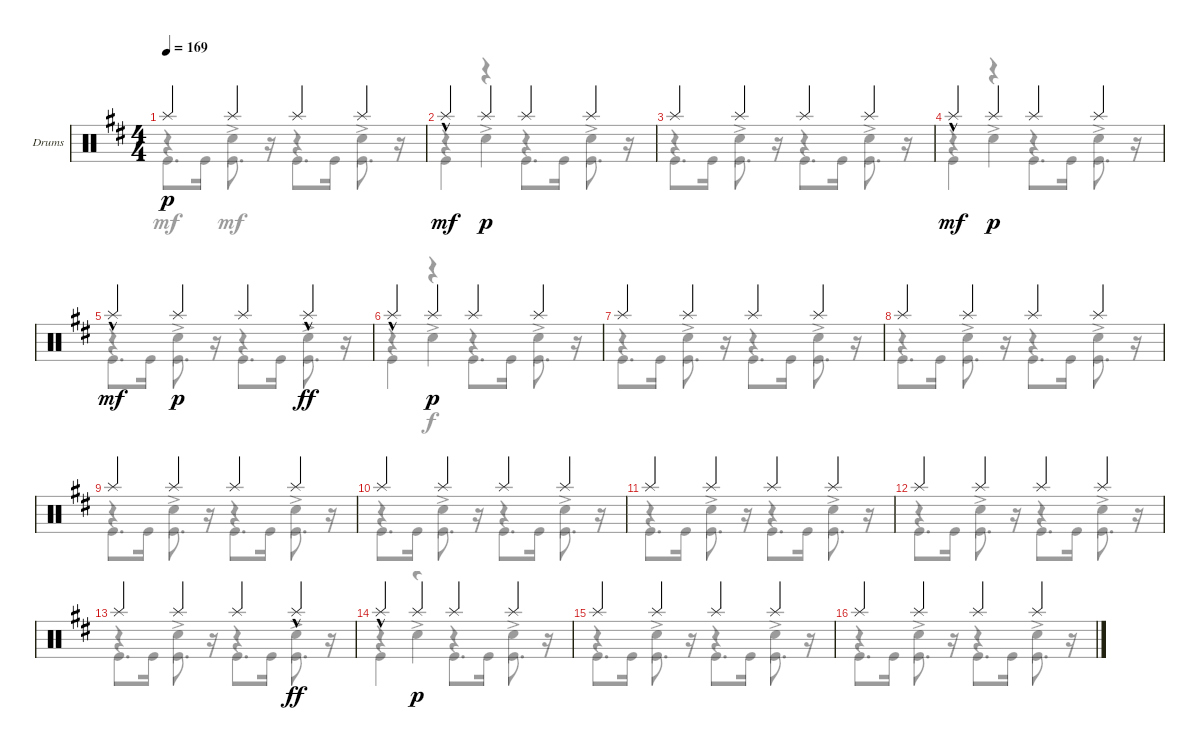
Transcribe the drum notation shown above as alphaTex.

\defaultSystemsLayout 4
\bracketExtendMode groupsimilarinstruments
\firstSystemTrackNameOrientation horizontal
\otherSystemsTrackNameOrientation horizontal
\track ("Drumkit (Wolf Gemora)" "Drums") {instrument percussion}
\staff {score}
\articulation defaults
\voice
\ts (4 4)
\tempo 169
\clef neutral
\scale
0.297698
\ks bminor "Splash (hit)".4{dy p} "Splash (hit)".4 "Splash (hit)".4 "Splash (hit)".4
|
\scale
0.355427 "Splash (hit)"{hac}.4{dy mf} "Splash (hit)".4{dy p} "Splash (hit)".4 "Splash (hit)".4 |
\scale
0.285663 "Splash (hit)".4 "Splash (hit)".4 "Splash (hit)".4 "Splash (hit)".4 |
\scale
0.361359 "Splash (hit)"{hac}.4{dy mf} "Splash (hit)".4{dy p} "Splash (hit)".4 "Splash (hit)".4 |
\scale
0.437163 "Splash (hit)"{hac}.4{dy mf} "Splash (hit)".4{dy p} "Splash (hit)".4 "Splash (hit)"{hac}.4{dy ff} |
\scale
0.277256 "Splash (hit)"{hac}.4 "Splash (hit)".4{dy p} "Splash (hit)".4 "Splash (hit)".4 |
\scale
0.2827 "Splash (hit)".4 "Splash (hit)".4 "Splash (hit)".4 "Splash (hit)".4 |
"Splash (hit)".4 "Splash (hit)".4 "Splash (hit)".4 "Splash (hit)".4 |
"Splash (hit)".4 "Splash (hit)".4 "Splash (hit)".4 "Splash (hit)".4 |
"Splash (hit)".4 "Splash (hit)".4 "Splash (hit)".4 "Splash (hit)".4 |
"Splash (hit)".4 "Splash (hit)".4 "Splash (hit)".4 "Splash (hit)".4 |
"Splash (hit)".4 "Splash (hit)".4 "Splash (hit)".4 "Splash (hit)".4 |
"Splash (hit)".4 "Splash (hit)".4 "Splash (hit)".4 "Splash (hit)"{hac}.4{dy ff} |
"Splash (hit)"{hac}.4 "Splash (hit)".4{dy p} "Splash (hit)".4 "Splash (hit)".4 |
"Splash (hit)".4 "Splash (hit)".4 "Splash (hit)".4 "Splash (hit)".4 |
"Splash (hit)".4 "Splash (hit)".4 "Splash (hit)".4 "Splash (hit)".4
\voice
\clef neutral
\ottava regular
\simile none
\scale
0.297698
\ks bminor "Kick (hit)".8{d dy mf} "Kick (hit)".16 "Kick (hit)".8{d}
r.16 "Kick (hit)".8{d} "Kick (hit)".16 "Kick (hit)".8{d} r.16 |
\scale
0.355427 "Kick (hit)".4 r.4 "Kick (hit)".8{d} "Kick (hit)".16 "Kick (hit)".8{d} r.16 |
\scale
0.285663 "Kick (hit)".8{d} "Kick (hit)".16 "Kick (hit)".8{d} r.16 "Kick (hit)".8{d} "Kick (hit)".16 "Kick (hit)".8{d} r.16 |
\scale
0.361359 "Kick (hit)".4 r.4 "Kick (hit)".8{d} "Kick (hit)".16 "Kick (hit)".8{d} r.16 |
\scale
0.437163 "Kick (hit)".8{d} "Kick (hit)".16 "Kick (hit)".8{d} r.16 "Kick (hit)".8{d} "Kick (hit)".16 "Kick (hit)".8{d} r.16 |
\scale
0.277256 "Kick (hit)".4 r.4 "Kick (hit)".8{d} "Kick (hit)".16 "Kick (hit)".8{d} r.16 |
\scale
0.2827 "Kick (hit)".8{d} "Kick (hit)".16 "Kick (hit)".8{d} r.16 "Kick (hit)".8{d} "Kick (hit)".16 "Kick (hit)".8{d} r.16 |
"Kick (hit)".8{d} "Kick (hit)".16 "Kick (hit)".8{d} r.16 "Kick (hit)".8{d} "Kick (hit)".16 "Kick (hit)".8{d} r.16 |
"Kick (hit)".8{d} "Kick (hit)".16 "Kick (hit)".8{d} r.16 "Kick (hit)".8{d} "Kick (hit)".16 "Kick (hit)".8{d} r.16 |
"Kick (hit)".8{d} "Kick (hit)".16 "Kick (hit)".8{d} r.16 "Kick (hit)".8{d} "Kick (hit)".16 "Kick (hit)".8{d} r.16 |
"Kick (hit)".8{d} "Kick (hit)".16 "Kick (hit)".8{d} r.16 "Kick (hit)".8{d} "Kick (hit)".16 "Kick (hit)".8{d} r.16 |
"Kick (hit)".8{d} "Kick (hit)".16 "Kick (hit)".8{d} r.16 "Kick (hit)".8{d} "Kick (hit)".16 "Kick (hit)".8{d} r.16 |
"Kick (hit)".8{d} "Kick (hit)".16 "Kick (hit)".8{d} r.16 "Kick (hit)".8{d} "Kick (hit)".16 "Kick (hit)".8{d} r.16 |
"Kick (hit)".4 r.4 "Kick (hit)".8{d} "Kick (hit)".16 "Kick (hit)".8{d} r.16 |
"Kick (hit)".8{d} "Kick (hit)".16 "Kick (hit)".8{d} r.16 "Kick (hit)".8{d} "Kick (hit)".16 "Kick (hit)".8{d} r.16 |
"Kick (hit)".8{d} "Kick (hit)".16 "Kick (hit)".8{d} r.16 "Kick (hit)".8{d} "Kick (hit)".16 "Kick (hit)".8{d} r.16
\voice
\clef neutral
\ottava regular
\simile none
\scale
0.297698
\ks bminor
r.4{dy mf} "Snare (hit) 2"{ac}.4 r.4 "Snare (hit) 2"{ac}.4 |
\scale
0.355427 r.4 "Snare (hit) 2"{ac}.4 r.4 "Snare (hit) 2"{ac}.4 |
\scale
0.285663 r.4 "Snare (hit) 2"{ac}.4 r.4 "Snare (hit) 2"{ac}.4 |
\scale
0.361359 r.4 "Snare (hit) 2"{ac}.4 r.4 "Snare (hit) 2"{ac}.4 |
\scale
0.437163 r.4 "Snare (hit) 2"{ac}.4 r.4 "Snare (hit) 2"{ac}.4 |
\scale
0.277256 r.4 "Snare (hit) 2"{ac}.4{dy f} r.4 "Snare (hit) 2"{ac}.4 |
\scale
0.2827 r.4 "Snare (hit) 2"{ac}.4 r.4 "Snare (hit) 2"{ac}.4 |
r.4 "Snare (hit) 2"{ac}.4 r.4 "Snare (hit) 2"{ac}.4 |
r.4 "Snare (hit) 2"{ac}.4 r.4 "Snare (hit) 2"{ac}.4 |
r.4 "Snare (hit) 2"{ac}.4 r.4 "Snare (hit) 2"{ac}.4 |
r.4 "Snare (hit) 2"{ac}.4 r.4 "Snare (hit) 2"{ac}.4 |
r.4 "Snare (hit) 2"{ac}.4 r.4 "Snare (hit) 2"{ac}.4 |
r.4 "Snare (hit) 2"{ac}.4 r.4 "Snare (hit) 2"{ac}.4 |
r.4 "Snare (hit) 2"{ac}.4 r.4 "Snare (hit) 2"{ac}.4 |
r.4 "Snare (hit) 2"{ac}.4 r.4 "Snare (hit) 2"{ac}.4 |
r.4 "Snare (hit) 2"{ac}.4 r.4 "Snare (hit) 2"{ac}.4
